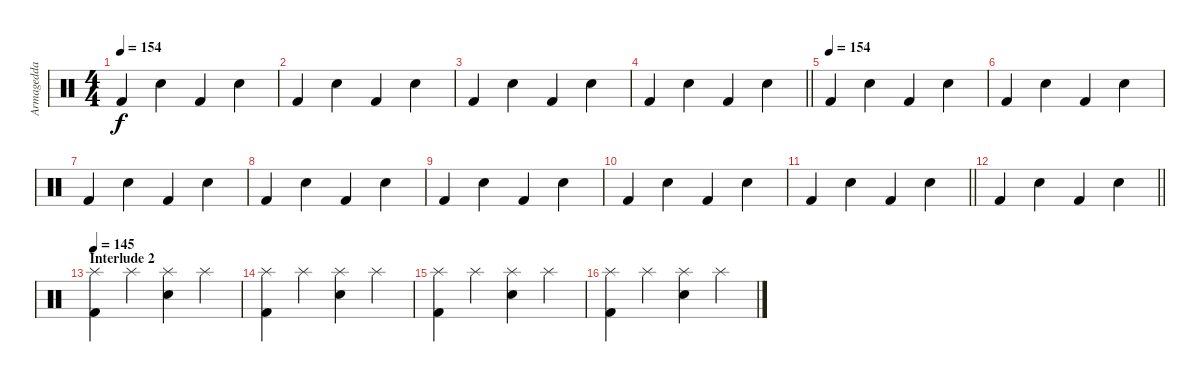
\track ("Armagedda" "Armagedda") {instrument percussion}
\staff {score}
\articulation defaults
\ts (4 4)
\tempo 154
\clef neutral
\ks c "Kick (hit) 2".4{dy f} "Snare (hit) 2".4 "Kick (hit) 2".4 "Snare (hit) 2".4
|
"Kick (hit) 2".4 "Snare (hit) 2".4 "Kick (hit) 2".4 "Snare (hit) 2".4 |
"Kick (hit) 2".4 "Snare (hit) 2".4 "Kick (hit) 2".4 "Snare (hit) 2".4 |
\barLineRight lightlight "Kick (hit) 2".4 "Snare (hit) 2".4 "Kick (hit) 2".4 "Snare (hit) 2".4
|
\tempo (154)
"Kick (hit) 2".4 "Snare (hit) 2".4 "Kick (hit) 2".4 "Snare (hit) 2".4 |
"Kick (hit) 2".4 "Snare (hit) 2".4 "Kick (hit) 2".4 "Snare (hit) 2".4 |
"Kick (hit) 2".4 "Snare (hit) 2".4 "Kick (hit) 2".4 "Snare (hit) 2".4 |
"Kick (hit) 2".4 "Snare (hit) 2".4 "Kick (hit) 2".4 "Snare (hit) 2".4 |
"Kick (hit) 2".4 "Snare (hit) 2".4 "Kick (hit) 2".4 "Snare (hit) 2".4 |
"Kick (hit) 2".4 "Snare (hit) 2".4 "Kick (hit) 2".4 "Snare (hit) 2".4 |
\barLineRight lightlight "Kick (hit) 2".4 "Snare (hit) 2".4 "Kick (hit) 2".4 "Snare (hit) 2".4
|
\barLineRight lightlight "Kick (hit) 2".4 "Snare (hit) 2".4 "Kick (hit) 2".4 "Snare (hit) 2".4
|
\section ("" "Interlude 2")
\tempo 145
("Splash (hit)" "Kick (hit) 2").4 "Splash (hit)".4 ("Splash (hit)" "Snare (hit) 2").4 "Splash (hit)".4 |
("Splash (hit)" "Kick (hit) 2").4 "Splash (hit)".4 ("Splash (hit)" "Snare (hit) 2").4 "Splash (hit)".4 |
("Splash (hit)" "Kick (hit) 2").4 "Splash (hit)".4 ("Splash (hit)" "Snare (hit) 2").4 "Splash (hit)".4 |
("Splash (hit)" "Kick (hit) 2").4 "Splash (hit)".4 ("Splash (hit)" "Snare (hit) 2").4 "Splash (hit)".4
